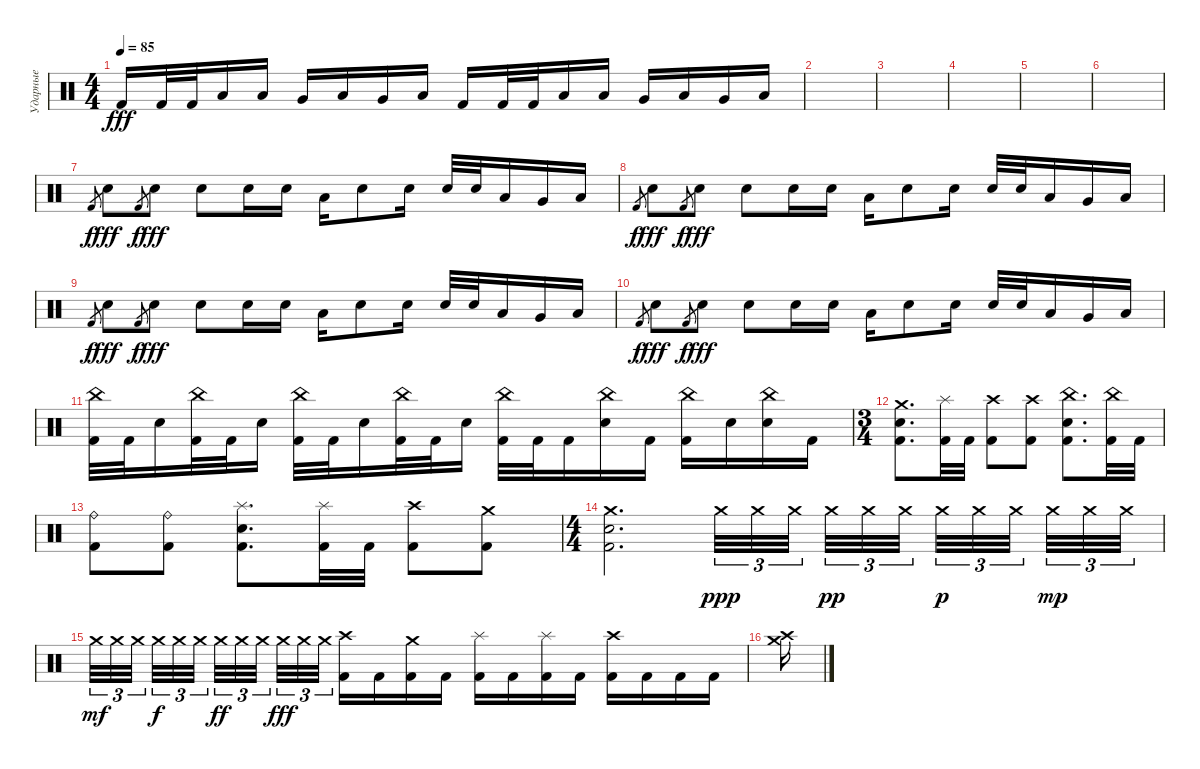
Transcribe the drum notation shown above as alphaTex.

\track ("Ударные" "Ударные") {instrument percussion}
\staff {score}
\articulation defaults
\ts (4 4)
\tempo 85
\clef neutral
\ks c "Kick (hit) 2".16{dy fff} "Kick (hit) 2".32 "Kick (hit) 2".32 "Low Tom (hit)".16 "Low Tom (hit)".16 "Very Low Tom (hit)".16 "Low Floor Tom (hit)".16 "Very Low Tom (hit)".16 "Low Floor Tom (hit)".16 "Kick (hit) 2".16 "Kick (hit) 2".32 "Kick (hit) 2".32 "Low Tom (hit)".16 "Low Tom (hit)".16 "Very Low Tom (hit)".16 "Low Floor Tom (hit)".16 "Very Low Tom (hit)".16 "Low Floor Tom (hit)".16
|
|
|
|
|
|
"Kick (hit) 2".8{gr dy f} "Electric Snare (hit)".8{dy fff} "Kick (hit) 2".8{gr dy f} "Electric Snare (hit)".8{dy fff} "Electric Snare (hit)".8 "Electric Snare (hit)".16 "Electric Snare (hit)".16 "Low Tom (hit)".16 "Electric Snare (hit)".8 "Electric Snare (hit)".16 "Electric Snare (hit)".32 "Electric Snare (hit)".32 "Low Tom (hit)".16 "Very Low Tom (hit)".16 "Low Floor Tom (hit)".16 |
"Kick (hit) 2".8{gr dy f} "Electric Snare (hit)".8{dy fff} "Kick (hit) 2".8{gr dy f} "Electric Snare (hit)".8{dy fff} "Electric Snare (hit)".8 "Electric Snare (hit)".16 "Electric Snare (hit)".16 "Low Tom (hit)".16 "Electric Snare (hit)".8 "Electric Snare (hit)".16 "Electric Snare (hit)".32 "Electric Snare (hit)".32 "Low Tom (hit)".16 "Very Low Tom (hit)".16 "Low Floor Tom (hit)".16 |
"Kick (hit) 2".8{gr dy f} "Electric Snare (hit)".8{dy fff} "Kick (hit) 2".8{gr dy f} "Electric Snare (hit)".8{dy fff} "Electric Snare (hit)".8 "Electric Snare (hit)".16 "Electric Snare (hit)".16 "Low Tom (hit)".16 "Electric Snare (hit)".8 "Electric Snare (hit)".16 "Electric Snare (hit)".32 "Electric Snare (hit)".32 "Low Tom (hit)".16 "Very Low Tom (hit)".16 "Low Floor Tom (hit)".16 |
"Kick (hit) 2".8{gr dy f} "Electric Snare (hit)".8{dy fff} "Kick (hit) 2".8{gr dy f} "Electric Snare (hit)".8{dy fff} "Electric Snare (hit)".8 "Electric Snare (hit)".16 "Electric Snare (hit)".16 "Low Tom (hit)".16 "Electric Snare (hit)".8 "Electric Snare (hit)".16 "Electric Snare (hit)".32 "Electric Snare (hit)".32 "Low Tom (hit)".16 "Very Low Tom (hit)".16 "Low Floor Tom (hit)".16 |
("China (hit)" "Kick (hit) 2").32 "Kick (hit) 2".32 "Electric Snare (hit)".16 ("China (hit)" "Kick (hit) 2").32 "Kick (hit) 2".32 "Electric Snare (hit)".16 ("China (hit)" "Kick (hit) 2").32 "Kick (hit) 2".32 "Electric Snare (hit)".16 ("China (hit)" "Kick (hit) 2").32 "Kick (hit) 2".32 "Electric Snare (hit)".16 ("China (hit)" "Kick (hit) 2").32 "Kick (hit) 2".32 "Kick (hit) 2".16 ("China (hit)" "Electric Snare (hit)").16 "Kick (hit) 2".16 ("China (hit)" "Kick (hit) 2").16 "Electric Snare (hit)".16 ("China (hit)" "Electric Snare (hit)").16 "Kick (hit) 2".16 |
\ts (3 4)
("Crash medium (hit)" "Electric Snare (hit)" "Kick (hit) 2").8{d} ("Splash (hit)" "Kick (hit) 2").32 "Kick (hit) 2".32 ("Crash high (hit)" "Kick (hit) 2").8 ("Crash high (hit)" "Kick (hit) 2").8 ("China (hit)" "Electric Snare (hit)" "Kick (hit) 2").8{d} ("China (hit)" "Kick (hit) 2").32 "Kick (hit) 2".32 |
("Ride (bell)" "Kick (hit) 2").8 ("Ride (bell)" "Kick (hit) 2").8 ("Splash (hit)" "Electric Snare (hit)" "Kick (hit) 2").8{d} ("Splash (hit)" "Kick (hit) 2").32 "Kick (hit) 2".32 ("Crash high (hit)" "Kick (hit) 2").8 ("Crash medium (hit)" "Kick (hit) 2").8 |
\ts (4 4)
("Crash medium (hit)" "Electric Snare (hit)" "Kick (hit) 2").2{d} "Crash medium (hit)".32{tu (3 2) dy ppp} "Crash medium (hit)".32{tu (3 2)} "Crash medium (hit)".32{tu (3 2) beam splitsecondary} "Crash medium (hit)".32{tu (3 2) dy pp} "Crash medium (hit)".32{tu (3 2)} "Crash medium (hit)".32{tu (3 2) beam splitsecondary} "Crash medium (hit)".32{tu (3 2) dy p} "Crash medium (hit)".32{tu (3 2)} "Crash medium (hit)".32{tu (3 2) beam splitsecondary} "Crash medium (hit)".32{tu (3 2) dy mp} "Crash medium (hit)".32{tu (3 2)} "Crash medium (hit)".32{tu (3 2)} |
"Crash medium (hit)".32{tu (3 2) dy mf} "Crash medium (hit)".32{tu (3 2)} "Crash medium (hit)".32{tu (3 2) beam splitsecondary} "Crash medium (hit)".32{tu (3 2) dy f} "Crash medium (hit)".32{tu (3 2)} "Crash medium (hit)".32{tu (3 2) beam splitsecondary} "Crash medium (hit)".32{tu (3 2) dy ff} "Crash medium (hit)".32{tu (3 2)} "Crash medium (hit)".32{tu (3 2) beam splitsecondary} "Crash medium (hit)".32{tu (3 2) dy fff} "Crash medium (hit)".32{tu (3 2)} "Crash medium (hit)".32{tu (3 2)} ("Crash high (hit)" "Kick (hit) 2").16 "Kick (hit) 2".16 ("Crash medium (hit)" "Kick (hit) 2").16 "Kick (hit) 2".16 ("Splash (hit)" "Kick (hit) 2").16 "Kick (hit) 2".16 ("Splash (hit)" "Kick (hit) 2").16 "Kick (hit) 2".16 ("Crash high (hit)" "Kick (hit) 2").16 "Kick (hit) 2".16 "Kick (hit) 2".16 "Kick (hit) 2".16 |
("Crash medium (hit)" "Crash high (hit)").16
